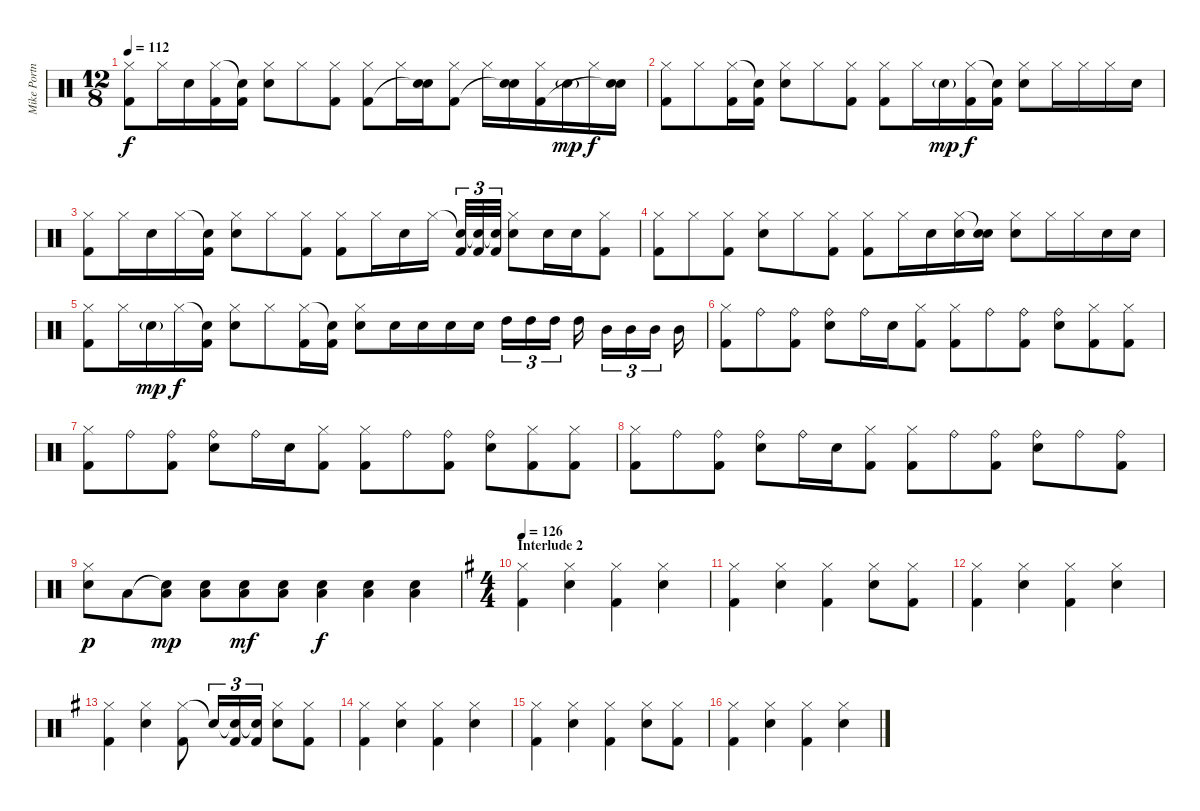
\track ("Mike Portnoy" "Mike Portn") {instrument percussion}
\staff {score}
\articulation defaults
\ts (12 8)
\tempo 112
\clef neutral
\ks c
("Hi-Hat (closed)" "Kick (hit) 2").8{dy f} "Hi-Hat (closed)".16 "Snare (hit) 2".16 ("Hi-Hat (closed)" "Kick (hit) 2").16 ("Snare (hit)"{t} "Kick (hit) 2").16 ("Hi-Hat (closed)" "Snare (hit) 2").8 "Hi-Hat (closed)".8 ("Hi-Hat (closed)" "Kick (hit) 2").8 ("Hi-Hat (closed)" "Kick (hit) 2").8 "Hi-Hat (closed)".16 ("Snare (hit) 2" "Snare (hit)"{t}).16 ("Hi-Hat (closed)" "Kick (hit) 2").8 "Hi-Hat (closed)".16 ("Snare (hit) 2" "Snare (hit)"{t}).16 ("Hi-Hat (closed)" "Kick (hit) 2").16 "Snare (hit) 2"{g}.16{dy mp} "Hi-Hat (closed)".16{dy f} ("Snare (hit) 2" "Snare (hit)"{t}).16 |
("Hi-Hat (closed)" "Kick (hit) 2").8 "Hi-Hat (closed)".8 ("Hi-Hat (closed)" "Kick (hit) 2").16 ("Snare (hit)"{t} "Kick (hit) 2").16 ("Hi-Hat (closed)" "Snare (hit) 2").8 "Hi-Hat (closed)".8 ("Hi-Hat (closed)" "Kick (hit) 2").8 ("Hi-Hat (closed)" "Kick (hit) 2").8 "Hi-Hat (closed)".16 "Snare (hit) 2"{g}.16{dy mp} ("Hi-Hat (closed)" "Kick (hit) 2").16{dy f} ("Snare (hit)"{t} "Kick (hit) 2").16 ("Hi-Hat (closed)" "Snare (hit) 2").8 "Hi-Hat (closed)".16 "Hi-Hat (closed)".16 "Hi-Hat (closed)".16 "Snare (hit) 2".16 |
("Hi-Hat (closed)" "Kick (hit) 2").8 "Hi-Hat (closed)".16 "Snare (hit) 2".16 "Hi-Hat (closed)".16 ("Snare (hit)"{t} "Kick (hit) 2").16 ("Hi-Hat (closed)" "Snare (hit) 2").8 "Hi-Hat (closed)".8 ("Hi-Hat (closed)" "Kick (hit) 2").8 ("Hi-Hat (closed)" "Kick (hit) 2").8 "Hi-Hat (closed)".16 "Snare (hit) 2".16 "Hi-Hat (closed)".16 ("Snare (hit)"{t} "Kick (hit) 2").32{tu (3 2)} ("Snare (hit)"{t} "Kick (hit) 2").32{tu (3 2)} ("Snare (hit)"{t} "Kick (hit) 2").32{tu (3 2)} ("Hi-Hat (closed)" "Snare (hit) 2").8 "Snare (hit) 2".16 "Snare (hit) 2".16 ("Hi-Hat (closed)" "Kick (hit) 2").8 |
("Hi-Hat (closed)" "Kick (hit) 2").8 "Hi-Hat (closed)".8 ("Hi-Hat (closed)" "Kick (hit) 2").8 ("Hi-Hat (closed)" "Snare (hit) 2").8 "Hi-Hat (closed)".8 ("Hi-Hat (closed)" "Kick (hit) 2").8 ("Hi-Hat (closed)" "Kick (hit) 2").8 "Hi-Hat (closed)".16 "Snare (hit) 2".16 ("Hi-Hat (closed)" "Snare (hit) 2").16 ("Snare (hit)"{t} "Snare (hit) 2").16 ("Hi-Hat (closed)" "Snare (hit) 2").8 "Hi-Hat (closed)".16 "Hi-Hat (closed)".16 "Snare (hit)".16 "Snare (hit) 2".16 |
("Hi-Hat (closed)" "Kick (hit) 2").8 "Hi-Hat (closed)".16 "Snare (hit) 2"{g}.16{dy mp} "Hi-Hat (closed)".16{dy f} ("Snare (hit)"{t} "Kick (hit) 2").16 ("Hi-Hat (closed)" "Snare (hit) 2").8 "Hi-Hat (closed)".8 ("Hi-Hat (closed)" "Kick (hit) 2").16 ("Snare (hit)"{t} "Kick (hit) 2").16 ("Hi-Hat (closed)" "Snare (hit) 2").8 "Snare (hit) 2".16 "Snare (hit) 2".16 "Snare (hit) 2".16 "Snare (hit) 2".16 "High Tom (hit)".16{tu (3 2)} "High Tom (hit)".16{tu (3 2)} "High Tom (hit)".16{tu (3 2)} "High Tom (hit)".16 "Mid Tom (hit)".16{tu (3 2)} "Mid Tom (hit)".16{tu (3 2)} "Mid Tom (hit)".16{tu (3 2)} "Mid Tom (hit)".16 |
("Hi-Hat (closed)" "Kick (hit) 2").8 "Ride (bell)".8 ("Ride (bell)" "Kick (hit) 2").8 ("Ride (bell)" "Snare (hit) 2").8 "Ride (bell)".16 "Snare (hit) 2".16 ("Hi-Hat (closed)" "Kick (hit) 2").8 ("Hi-Hat (closed)" "Kick (hit) 2").8 "Ride (bell)".8 ("Ride (bell)" "Kick (hit) 2").8 ("Ride (bell)" "Snare (hit) 2").8 ("Hi-Hat (closed)" "Kick (hit) 2").8 ("Hi-Hat (closed)" "Kick (hit) 2").8 |
("Hi-Hat (closed)" "Kick (hit) 2").8 "Ride (bell)".8 ("Ride (bell)" "Kick (hit) 2").8 ("Ride (bell)" "Snare (hit) 2").8 "Ride (bell)".16 "Snare (hit) 2".16 ("Hi-Hat (closed)" "Kick (hit) 2").8 ("Hi-Hat (closed)" "Kick (hit) 2").8 "Ride (bell)".8 ("Ride (bell)" "Kick (hit) 2").8 ("Ride (bell)" "Snare (hit) 2").8 ("Hi-Hat (closed)" "Kick (hit) 2").8 ("Hi-Hat (closed)" "Kick (hit) 2").8 |
("Hi-Hat (closed)" "Kick (hit) 2").8 "Ride (bell)".8 ("Ride (bell)" "Kick (hit) 2").8 ("Ride (bell)" "Snare (hit) 2").8 "Ride (bell)".16 "Snare (hit) 2".16 ("Hi-Hat (closed)" "Kick (hit) 2").8 ("Hi-Hat (closed)" "Kick (hit) 2").8 "Ride (bell)".8 ("Ride (bell)" "Kick (hit) 2").8 ("Ride (bell)" "Snare (hit) 2").8 "Ride (bell)".8 ("Ride (bell)" "Kick (hit) 2").8 |
("Hi-Hat (closed)" "Snare (hit) 2").8{dy p} "Low Tom (hit)".8 ("Snare (hit)"{t} "Low Tom (hit)").8{dy mp} ("Snare (hit) 2" "Low Tom (hit)").8 ("Snare (hit) 2" "Low Tom (hit)").8{dy mf} ("Snare (hit) 2" "Low Tom (hit)").8 ("Snare (hit) 2" "Low Tom (hit)").4{dy f} ("Snare (hit) 2" "Low Tom (hit)").4 ("Snare (hit) 2" "Low Tom (hit)").4 |
\ts (4 4)
\section ("" "Interlude 2")
\tempo 126
\ks g
("Hi-Hat (closed)" "Kick (hit) 2").4 ("Hi-Hat (closed)" "Snare (hit) 2").4 ("Hi-Hat (closed)" "Kick (hit) 2").4 ("Hi-Hat (closed)" "Snare (hit) 2").4 |
("Hi-Hat (closed)" "Kick (hit) 2").4 ("Hi-Hat (closed)" "Snare (hit) 2").4 ("Hi-Hat (closed)" "Kick (hit) 2").4 ("Hi-Hat (closed)" "Snare (hit) 2").8 ("Hi-Hat (closed)" "Kick (hit) 2").8 |
("Hi-Hat (closed)" "Kick (hit) 2").4 ("Hi-Hat (closed)" "Snare (hit) 2").4 ("Hi-Hat (closed)" "Kick (hit) 2").4 ("Hi-Hat (closed)" "Snare (hit) 2").4 |
("Hi-Hat (closed)" "Kick (hit) 2").4 ("Hi-Hat (closed)" "Snare (hit) 2").4 ("Hi-Hat (closed)" "Kick (hit) 2").8 "Snare (hit)"{t}.16{tu (3 2)} ("Snare (hit)"{t} "Kick (hit) 2").16{tu (3 2)} ("Snare (hit)"{t} "Kick (hit) 2").16{tu (3 2)} ("Hi-Hat (closed)" "Snare (hit) 2").8 ("Hi-Hat (closed)" "Kick (hit) 2").8 |
("Hi-Hat (closed)" "Kick (hit) 2").4 ("Hi-Hat (closed)" "Snare (hit) 2").4 ("Hi-Hat (closed)" "Kick (hit) 2").4 ("Hi-Hat (closed)" "Snare (hit) 2").4 |
("Hi-Hat (closed)" "Kick (hit) 2").4 ("Hi-Hat (closed)" "Snare (hit) 2").4 ("Hi-Hat (closed)" "Kick (hit) 2").4 ("Hi-Hat (closed)" "Snare (hit) 2").8 ("Hi-Hat (closed)" "Kick (hit) 2").8 |
("Hi-Hat (closed)" "Kick (hit) 2").4 ("Hi-Hat (closed)" "Snare (hit) 2").4 ("Hi-Hat (closed)" "Kick (hit) 2").4 ("Hi-Hat (closed)" "Snare (hit) 2").4
